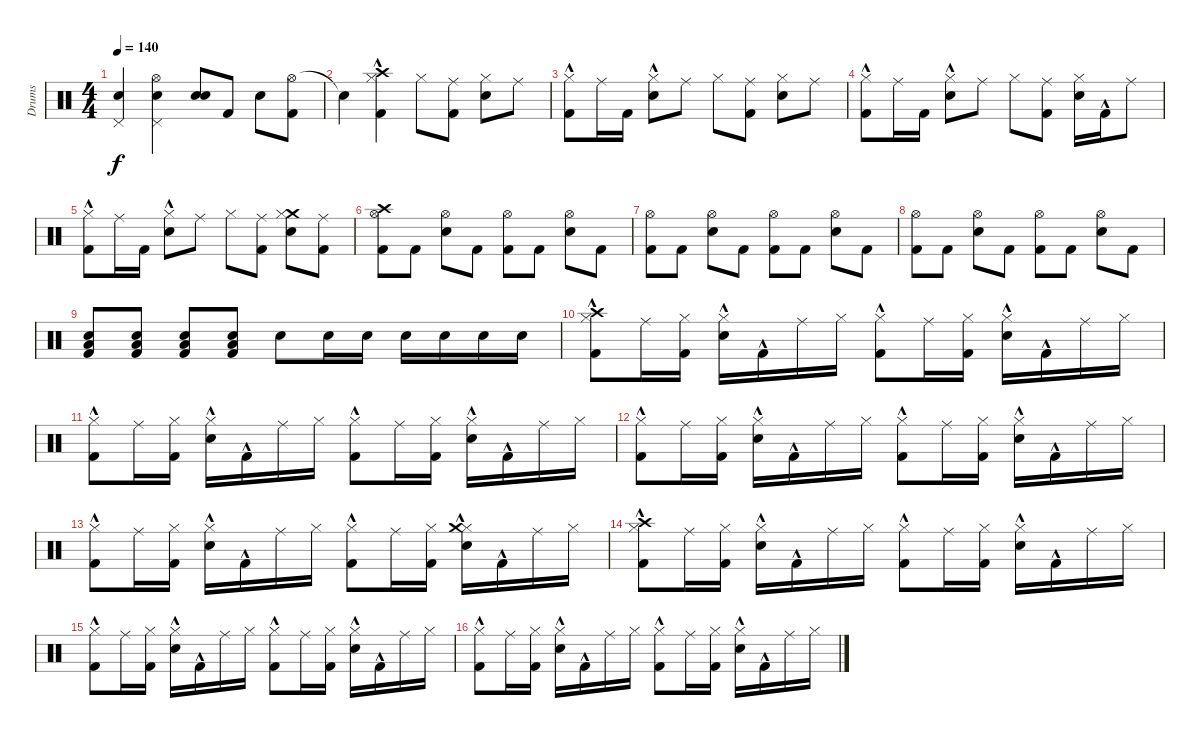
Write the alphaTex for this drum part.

\track ("Drums" "Drums") {instrument percussion}
\staff {score}
\articulation defaults
\ts (4 4)
\tempo 140
\clef neutral
\ks c
("Pedal Hi-Hat (hit)" "Electric Snare (hit)").4{dy f} ("Electric Snare (hit)" "Pedal Hi-Hat (hit)" "Hi-Hat (open)").4 ("Electric Snare (hit)" "Electric Snare (hit)").8 "Kick (hit) 2".8 "Electric Snare (hit)".8 ("Hi-Hat (open)" "Kick (hit) 2").8 |
"Snare (hit)"{t}.4 ("Hi-Hat (closed)" "Crash high (hit)" "Kick (hit) 2"{hac}).4 "Hi-Hat (closed)".8 ("Ride (middle)" "Kick (hit) 2").8 ("Hi-Hat (closed)" "Electric Snare (hit)").8 "Ride (middle)".8 |
("Kick (hit) 2"{hac} "Hi-Hat (closed)").8 "Ride (middle)".16 "Kick (hit) 2".16 ("Electric Snare (hit)"{hac} "Hi-Hat (closed)").8 "Ride (middle)".8 "Hi-Hat (closed)".8 ("Kick (hit) 2" "Ride (middle)").8 ("Electric Snare (hit)" "Hi-Hat (closed)").8 "Ride (middle)".8 |
("Kick (hit) 2"{hac} "Hi-Hat (closed)").8 "Ride (middle)".16 "Kick (hit) 2".16 ("Hi-Hat (closed)" "Electric Snare (hit)"{hac}).8 "Ride (middle)".8 "Hi-Hat (closed)".8 ("Kick (hit) 2" "Ride (middle)").8 ("Hi-Hat (closed)" "Electric Snare (hit)").16 "Kick (hit) 2"{hac}.16 "Ride (middle)".8 |
("Hi-Hat (closed)" "Kick (hit) 2"{hac}).8 "Ride (middle)".16 "Kick (hit) 2".16 ("Hi-Hat (closed)" "Electric Snare (hit)"{hac}).8 "Ride (middle)".8 "Hi-Hat (closed)".8 ("Kick (hit) 2" "Ride (middle)").8 ("Crash medium (hit)" "Hi-Hat (closed)" "Electric Snare (hit)").8 ("Kick (hit) 2" "Ride (middle)").8 |
("Crash high (hit)" "Hi-Hat (open)" "Kick (hit) 2").8 "Kick (hit) 2".8 ("Hi-Hat (open)" "Electric Snare (hit)").8 "Kick (hit) 2".8 ("Hi-Hat (open)" "Kick (hit) 2").8 "Kick (hit) 2".8 ("Hi-Hat (open)" "Electric Snare (hit)").8 "Kick (hit) 2".8 |
("Kick (hit) 2" "Hi-Hat (open)").8 "Kick (hit) 2".8 ("Hi-Hat (open)" "Electric Snare (hit)").8 "Kick (hit) 2".8 ("Kick (hit) 2" "Hi-Hat (open)").8 "Kick (hit) 2".8 ("Hi-Hat (open)" "Electric Snare (hit)").8 "Kick (hit) 2".8 |
("Kick (hit) 2" "Hi-Hat (open)").8 "Kick (hit) 2".8 ("Electric Snare (hit)" "Hi-Hat (open)").8 "Kick (hit) 2".8 ("Hi-Hat (open)" "Kick (hit) 2").8 "Kick (hit) 2".8 ("Hi-Hat (open)" "Electric Snare (hit)").8 "Kick (hit) 2".8 |
("Snare (hit) 2" "Low Floor Tom (hit)" "Kick (hit) 2").8 ("Snare (hit) 2" "Low Floor Tom (hit)" "Kick (hit) 2").8 ("Snare (hit) 2" "Low Floor Tom (hit)" "Kick (hit) 2").8 ("Electric Snare (hit)" "Low Floor Tom (hit)" "Kick (hit) 2").8 "Electric Snare (hit)".8 "Electric Snare (hit)".16 "Electric Snare (hit)".16 "Electric Snare (hit)".16 "Electric Snare (hit)".16 "Electric Snare (hit)".16 "Electric Snare (hit)".16 |
("Hi-Hat (closed)"{hac} "Crash high (hit)" "Kick (hit) 2"{hac}).8 "Ride (middle)".16 ("Hi-Hat (closed)" "Kick (hit) 2").16 ("Electric Snare (hit)" "Hi-Hat (closed)"{hac}).16 "Kick (hit) 2"{hac}.16 "Ride (middle)".16 "Hi-Hat (closed)".16 ("Kick (hit) 2"{hac} "Hi-Hat (closed)"{hac}).8 "Ride (middle)".16 ("Kick (hit) 2" "Hi-Hat (closed)").16 ("Electric Snare (hit)" "Hi-Hat (closed)"{hac}).16 "Kick (hit) 2"{hac}.16 "Ride (middle)".16 "Hi-Hat (closed)".16 |
("Kick (hit) 2"{hac} "Hi-Hat (closed)"{hac}).8 "Ride (middle)".16 ("Hi-Hat (closed)" "Kick (hit) 2").16 ("Hi-Hat (closed)"{hac} "Electric Snare (hit)").16 "Kick (hit) 2"{hac}.16 "Ride (middle)".16 "Hi-Hat (closed)".16 ("Hi-Hat (closed)"{hac} "Kick (hit) 2"{hac}).8 "Ride (middle)".16 ("Kick (hit) 2" "Hi-Hat (closed)").16 ("Hi-Hat (closed)"{hac} "Electric Snare (hit)").16 "Kick (hit) 2"{hac}.16 "Ride (middle)".16 "Hi-Hat (closed)".16 |
("Kick (hit) 2"{hac} "Hi-Hat (closed)"{hac}).8 "Ride (middle)".16 ("Hi-Hat (closed)" "Kick (hit) 2").16 ("Electric Snare (hit)" "Hi-Hat (closed)"{hac}).16 "Kick (hit) 2"{hac}.16 "Ride (middle)".16 "Hi-Hat (closed)".16 ("Kick (hit) 2"{hac} "Hi-Hat (closed)"{hac}).8 "Ride (middle)".16 ("Hi-Hat (closed)" "Kick (hit) 2").16 ("Electric Snare (hit)" "Hi-Hat (closed)"{hac}).16 "Kick (hit) 2"{hac}.16 "Ride (middle)".16 "Hi-Hat (closed)".16 |
("Hi-Hat (closed)"{hac} "Kick (hit) 2"{hac}).8 "Ride (middle)".16 ("Hi-Hat (closed)" "Kick (hit) 2").16 ("Electric Snare (hit)" "Hi-Hat (closed)"{hac}).16 "Kick (hit) 2"{hac}.16 "Ride (middle)".16 "Hi-Hat (closed)".16 ("Hi-Hat (closed)"{hac} "Kick (hit) 2"{hac}).8 "Ride (middle)".16 ("Hi-Hat (closed)" "Kick (hit) 2").16 ("Electric Snare (hit)" "Hi-Hat (closed)"{hac} "Crash medium (hit)").16 "Kick (hit) 2"{hac}.16 "Ride (middle)".16 "Hi-Hat (closed)".16 |
("Crash high (hit)" "Kick (hit) 2"{hac} "Hi-Hat (closed)"{hac}).8 "Ride (middle)".16 ("Kick (hit) 2" "Hi-Hat (closed)").16 ("Electric Snare (hit)" "Hi-Hat (closed)"{hac}).16 "Kick (hit) 2"{hac}.16 "Ride (middle)".16 "Hi-Hat (closed)".16 ("Hi-Hat (closed)"{hac} "Kick (hit) 2"{hac}).8 "Ride (middle)".16 ("Kick (hit) 2" "Hi-Hat (closed)").16 ("Hi-Hat (closed)"{hac} "Electric Snare (hit)").16 "Kick (hit) 2"{hac}.16 "Ride (middle)".16 "Hi-Hat (closed)".16 |
("Hi-Hat (closed)"{hac} "Kick (hit) 2"{hac}).8 "Ride (middle)".16 ("Hi-Hat (closed)" "Kick (hit) 2").16 ("Electric Snare (hit)" "Hi-Hat (closed)"{hac}).16 "Kick (hit) 2"{hac}.16 "Ride (middle)".16 "Hi-Hat (closed)".16 ("Kick (hit) 2"{hac} "Hi-Hat (closed)"{hac}).8 "Ride (middle)".16 ("Hi-Hat (closed)" "Kick (hit) 2").16 ("Electric Snare (hit)" "Hi-Hat (closed)"{hac}).16 "Kick (hit) 2"{hac}.16 "Ride (middle)".16 "Hi-Hat (closed)".16 |
("Kick (hit) 2"{hac} "Hi-Hat (closed)"{hac}).8 "Ride (middle)".16 ("Hi-Hat (closed)" "Kick (hit) 2").16 ("Hi-Hat (closed)"{hac} "Electric Snare (hit)").16 "Kick (hit) 2"{hac}.16 "Ride (middle)".16 "Hi-Hat (closed)".16 ("Kick (hit) 2"{hac} "Hi-Hat (closed)"{hac}).8 "Ride (middle)".16 ("Kick (hit) 2" "Hi-Hat (closed)").16 ("Electric Snare (hit)" "Hi-Hat (closed)"{hac}).16 "Kick (hit) 2"{hac}.16 "Ride (middle)".16 "Hi-Hat (closed)".16
